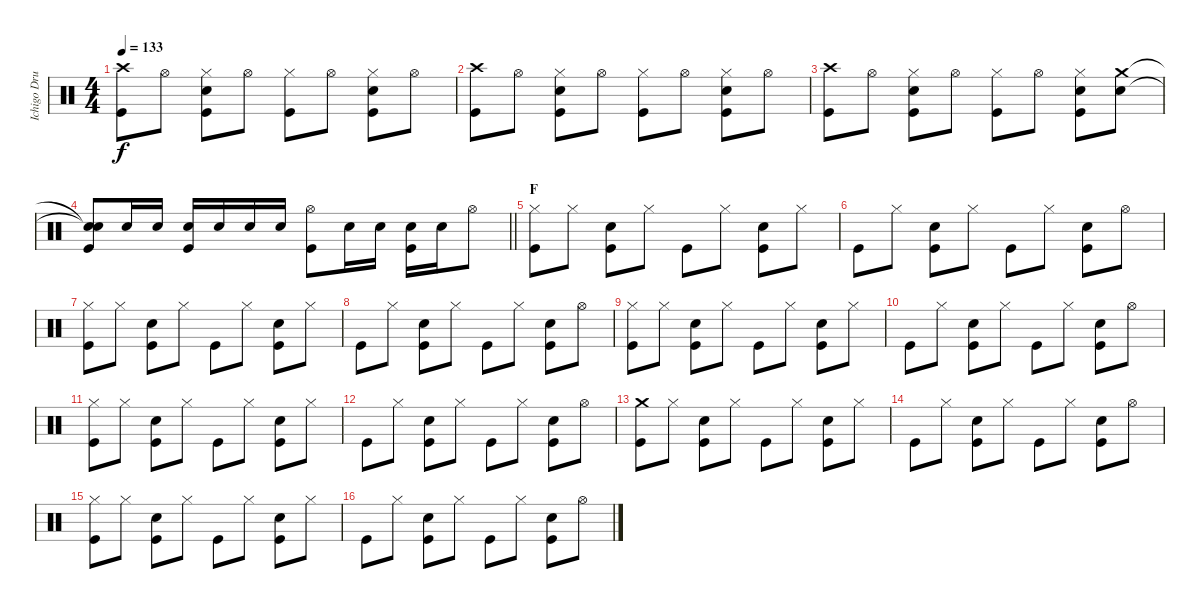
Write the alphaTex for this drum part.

\track ("Ichigo Drums" "Ichigo Dru") {instrument percussion}
\staff {score}
\articulation defaults
\ts (4 4)
\tempo 133
\clef neutral
\ks c
("Crash high (hit)" "Kick (hit)").8{dy f} "Hi-Hat (open)".8 ("Hi-Hat (closed)" "Snare (hit) 2" "Kick (hit)").8 "Hi-Hat (open)".8 ("Hi-Hat (closed)" "Kick (hit)").8 "Hi-Hat (open)".8 ("Hi-Hat (closed)" "Snare (hit) 2" "Kick (hit)").8 "Hi-Hat (open)".8 |
("Crash high (hit)" "Kick (hit)").8 "Hi-Hat (open)".8 ("Hi-Hat (closed)" "Snare (hit) 2" "Kick (hit)").8 "Hi-Hat (open)".8 ("Hi-Hat (closed)" "Kick (hit)").8 "Hi-Hat (open)".8 ("Hi-Hat (closed)" "Snare (hit) 2" "Kick (hit)").8 "Hi-Hat (open)".8 |
("Crash high (hit)" "Kick (hit)").8 "Hi-Hat (open)".8 ("Hi-Hat (closed)" "Snare (hit) 2" "Kick (hit)").8 "Hi-Hat (open)".8 ("Hi-Hat (closed)" "Kick (hit)").8 "Hi-Hat (open)".8 ("Hi-Hat (closed)" "Snare (hit) 2" "Kick (hit)").8 ("Crash medium (hit)" "Snare (hit) 2").8 |
\barLineRight lightlight
("Snare (hit)"{t} "Snare (hit)"{t} "Kick (hit)").8 "Snare (hit) 2".16 "Snare (hit) 2".16 ("Snare (hit) 2" "Kick (hit)").16 "Snare (hit) 2".16 "Snare (hit) 2".16 "Snare (hit) 2".16 ("Hi-Hat (open)" "Kick (hit)").8 "Snare (hit) 2".16 "Snare (hit) 2".16 ("Snare (hit) 2" "Kick (hit)").16 "Snare (hit) 2".16 "Hi-Hat (open)".8 |
\section ("" "F")
("Hi-Hat (closed)" "Kick (hit)").8 "Hi-Hat (closed)".8 ("Snare (hit) 2" "Kick (hit)").8 "Hi-Hat (closed)".8 "Kick (hit)".8 "Hi-Hat (closed)".8 ("Snare (hit) 2" "Kick (hit)").8 "Hi-Hat (closed)".8 |
"Kick (hit)".8 "Hi-Hat (closed)".8 ("Snare (hit) 2" "Kick (hit)").8 "Hi-Hat (closed)".8 "Kick (hit)".8 "Hi-Hat (closed)".8 ("Snare (hit) 2" "Kick (hit)").8 "Hi-Hat (open)".8 |
("Hi-Hat (closed)" "Kick (hit)").8 "Hi-Hat (closed)".8 ("Snare (hit) 2" "Kick (hit)").8 "Hi-Hat (closed)".8 "Kick (hit)".8 "Hi-Hat (closed)".8 ("Snare (hit) 2" "Kick (hit)").8 "Hi-Hat (closed)".8 |
"Kick (hit)".8 "Hi-Hat (closed)".8 ("Snare (hit) 2" "Kick (hit)").8 "Hi-Hat (closed)".8 "Kick (hit)".8 "Hi-Hat (closed)".8 ("Snare (hit) 2" "Kick (hit)").8 "Hi-Hat (open)".8 |
("Hi-Hat (closed)" "Kick (hit)").8 "Hi-Hat (closed)".8 ("Snare (hit) 2" "Kick (hit)").8 "Hi-Hat (closed)".8 "Kick (hit)".8 "Hi-Hat (closed)".8 ("Snare (hit) 2" "Kick (hit)").8 "Hi-Hat (closed)".8 |
"Kick (hit)".8 "Hi-Hat (closed)".8 ("Snare (hit) 2" "Kick (hit)").8 "Hi-Hat (closed)".8 "Kick (hit)".8 "Hi-Hat (closed)".8 ("Snare (hit) 2" "Kick (hit)").8 "Hi-Hat (open)".8 |
("Hi-Hat (closed)" "Kick (hit)").8 "Hi-Hat (closed)".8 ("Snare (hit) 2" "Kick (hit)").8 "Hi-Hat (closed)".8 "Kick (hit)".8 "Hi-Hat (closed)".8 ("Snare (hit) 2" "Kick (hit)").8 "Hi-Hat (closed)".8 |
"Kick (hit)".8 "Hi-Hat (closed)".8 ("Snare (hit) 2" "Kick (hit)").8 "Hi-Hat (closed)".8 "Kick (hit)".8 "Hi-Hat (closed)".8 ("Snare (hit) 2" "Kick (hit)").8 "Hi-Hat (open)".8 |
("Crash medium (hit)" "Kick (hit)").8 "Hi-Hat (closed)".8 ("Snare (hit) 2" "Kick (hit)").8 "Hi-Hat (closed)".8 "Kick (hit)".8 "Hi-Hat (closed)".8 ("Snare (hit) 2" "Kick (hit)").8 "Hi-Hat (closed)".8 |
"Kick (hit)".8 "Hi-Hat (closed)".8 ("Snare (hit) 2" "Kick (hit)").8 "Hi-Hat (closed)".8 "Kick (hit)".8 "Hi-Hat (closed)".8 ("Snare (hit) 2" "Kick (hit)").8 "Hi-Hat (open)".8 |
("Hi-Hat (closed)" "Kick (hit)").8 "Hi-Hat (closed)".8 ("Snare (hit) 2" "Kick (hit)").8 "Hi-Hat (closed)".8 "Kick (hit)".8 "Hi-Hat (closed)".8 ("Snare (hit) 2" "Kick (hit)").8 "Hi-Hat (closed)".8 |
"Kick (hit)".8 "Hi-Hat (closed)".8 ("Snare (hit) 2" "Kick (hit)").8 "Hi-Hat (closed)".8 "Kick (hit)".8 "Hi-Hat (closed)".8 ("Snare (hit) 2" "Kick (hit)").8 "Hi-Hat (open)".8
